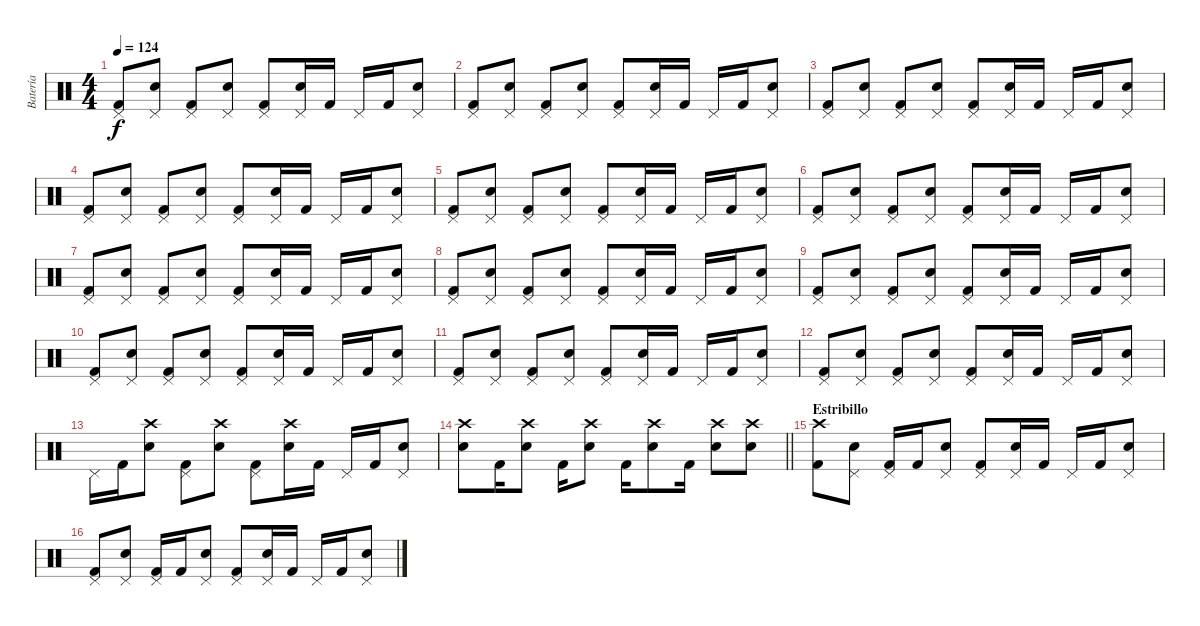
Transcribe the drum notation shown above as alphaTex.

\track ("Batería" "Batería") {instrument percussion}
\staff {score}
\articulation defaults
\ts (4 4)
\tempo 124
\clef neutral
\ks c
("Pedal Hi-Hat (hit)" "Kick (hit) 2").8{dy f} ("Pedal Hi-Hat (hit)" "Snare (hit) 2").8 ("Pedal Hi-Hat (hit)" "Kick (hit) 2").8 ("Pedal Hi-Hat (hit)" "Snare (hit) 2").8 ("Pedal Hi-Hat (hit)" "Kick (hit) 2").8 ("Pedal Hi-Hat (hit)" "Snare (hit) 2").16 "Kick (hit) 2".16 "Pedal Hi-Hat (hit)".16 "Kick (hit) 2".16 ("Pedal Hi-Hat (hit)" "Snare (hit) 2").8 |
("Pedal Hi-Hat (hit)" "Kick (hit) 2").8 ("Pedal Hi-Hat (hit)" "Snare (hit) 2").8 ("Pedal Hi-Hat (hit)" "Kick (hit) 2").8 ("Pedal Hi-Hat (hit)" "Snare (hit) 2").8 ("Pedal Hi-Hat (hit)" "Kick (hit) 2").8 ("Pedal Hi-Hat (hit)" "Snare (hit) 2").16 "Kick (hit) 2".16 "Pedal Hi-Hat (hit)".16 "Kick (hit) 2".16 ("Pedal Hi-Hat (hit)" "Snare (hit) 2").8 |
("Pedal Hi-Hat (hit)" "Kick (hit) 2").8 ("Pedal Hi-Hat (hit)" "Snare (hit) 2").8 ("Pedal Hi-Hat (hit)" "Kick (hit) 2").8 ("Pedal Hi-Hat (hit)" "Snare (hit) 2").8 ("Pedal Hi-Hat (hit)" "Kick (hit) 2").8 ("Pedal Hi-Hat (hit)" "Snare (hit) 2").16 "Kick (hit) 2".16 "Pedal Hi-Hat (hit)".16 "Kick (hit) 2".16 ("Pedal Hi-Hat (hit)" "Snare (hit) 2").8 |
("Pedal Hi-Hat (hit)" "Kick (hit) 2").8 ("Pedal Hi-Hat (hit)" "Snare (hit) 2").8 ("Pedal Hi-Hat (hit)" "Kick (hit) 2").8 ("Pedal Hi-Hat (hit)" "Snare (hit) 2").8 ("Pedal Hi-Hat (hit)" "Kick (hit) 2").8 ("Pedal Hi-Hat (hit)" "Snare (hit) 2").16 "Kick (hit) 2".16 "Pedal Hi-Hat (hit)".16 "Kick (hit) 2".16 ("Pedal Hi-Hat (hit)" "Snare (hit) 2").8 |
("Pedal Hi-Hat (hit)" "Kick (hit) 2").8 ("Pedal Hi-Hat (hit)" "Snare (hit) 2").8 ("Pedal Hi-Hat (hit)" "Kick (hit) 2").8 ("Pedal Hi-Hat (hit)" "Snare (hit) 2").8 ("Pedal Hi-Hat (hit)" "Kick (hit) 2").8 ("Pedal Hi-Hat (hit)" "Snare (hit) 2").16 "Kick (hit) 2".16 "Pedal Hi-Hat (hit)".16 "Kick (hit) 2".16 ("Pedal Hi-Hat (hit)" "Snare (hit) 2").8 |
("Pedal Hi-Hat (hit)" "Kick (hit) 2").8 ("Pedal Hi-Hat (hit)" "Snare (hit) 2").8 ("Pedal Hi-Hat (hit)" "Kick (hit) 2").8 ("Pedal Hi-Hat (hit)" "Snare (hit) 2").8 ("Pedal Hi-Hat (hit)" "Kick (hit) 2").8 ("Pedal Hi-Hat (hit)" "Snare (hit) 2").16 "Kick (hit) 2".16 "Pedal Hi-Hat (hit)".16 "Kick (hit) 2".16 ("Pedal Hi-Hat (hit)" "Snare (hit) 2").8 |
("Pedal Hi-Hat (hit)" "Kick (hit) 2").8 ("Pedal Hi-Hat (hit)" "Snare (hit) 2").8 ("Pedal Hi-Hat (hit)" "Kick (hit) 2").8 ("Pedal Hi-Hat (hit)" "Snare (hit) 2").8 ("Pedal Hi-Hat (hit)" "Kick (hit) 2").8 ("Pedal Hi-Hat (hit)" "Snare (hit) 2").16 "Kick (hit) 2".16 "Pedal Hi-Hat (hit)".16 "Kick (hit) 2".16 ("Pedal Hi-Hat (hit)" "Snare (hit) 2").8 |
("Pedal Hi-Hat (hit)" "Kick (hit) 2").8 ("Pedal Hi-Hat (hit)" "Snare (hit) 2").8 ("Pedal Hi-Hat (hit)" "Kick (hit) 2").8 ("Pedal Hi-Hat (hit)" "Snare (hit) 2").8 ("Pedal Hi-Hat (hit)" "Kick (hit) 2").8 ("Pedal Hi-Hat (hit)" "Snare (hit) 2").16 "Kick (hit) 2".16 "Pedal Hi-Hat (hit)".16 "Kick (hit) 2".16 ("Pedal Hi-Hat (hit)" "Snare (hit) 2").8 |
("Pedal Hi-Hat (hit)" "Kick (hit) 2").8 ("Pedal Hi-Hat (hit)" "Snare (hit) 2").8 ("Pedal Hi-Hat (hit)" "Kick (hit) 2").8 ("Pedal Hi-Hat (hit)" "Snare (hit) 2").8 ("Pedal Hi-Hat (hit)" "Kick (hit) 2").8 ("Pedal Hi-Hat (hit)" "Snare (hit) 2").16 "Kick (hit) 2".16 "Pedal Hi-Hat (hit)".16 "Kick (hit) 2".16 ("Pedal Hi-Hat (hit)" "Snare (hit) 2").8 |
("Pedal Hi-Hat (hit)" "Kick (hit) 2").8 ("Pedal Hi-Hat (hit)" "Snare (hit) 2").8 ("Pedal Hi-Hat (hit)" "Kick (hit) 2").8 ("Pedal Hi-Hat (hit)" "Snare (hit) 2").8 ("Pedal Hi-Hat (hit)" "Kick (hit) 2").8 ("Pedal Hi-Hat (hit)" "Snare (hit) 2").16 "Kick (hit) 2".16 "Pedal Hi-Hat (hit)".16 "Kick (hit) 2".16 ("Pedal Hi-Hat (hit)" "Snare (hit) 2").8 |
("Pedal Hi-Hat (hit)" "Kick (hit) 2").8 ("Pedal Hi-Hat (hit)" "Snare (hit) 2").8 ("Pedal Hi-Hat (hit)" "Kick (hit) 2").8 ("Pedal Hi-Hat (hit)" "Snare (hit) 2").8 ("Pedal Hi-Hat (hit)" "Kick (hit) 2").8 ("Pedal Hi-Hat (hit)" "Snare (hit) 2").16 "Kick (hit) 2".16 "Pedal Hi-Hat (hit)".16 "Kick (hit) 2".16 ("Pedal Hi-Hat (hit)" "Snare (hit) 2").8 |
("Pedal Hi-Hat (hit)" "Kick (hit) 2").8 ("Pedal Hi-Hat (hit)" "Snare (hit) 2").8 ("Pedal Hi-Hat (hit)" "Kick (hit) 2").8 ("Pedal Hi-Hat (hit)" "Snare (hit) 2").8 ("Pedal Hi-Hat (hit)" "Kick (hit) 2").8 ("Pedal Hi-Hat (hit)" "Snare (hit) 2").16 "Kick (hit) 2".16 "Pedal Hi-Hat (hit)".16 "Kick (hit) 2".16 ("Pedal Hi-Hat (hit)" "Snare (hit) 2").8 |
"Pedal Hi-Hat (hit)".16 "Kick (hit) 2".16 ("Crash high (hit)" "Snare (hit) 2").8 ("Pedal Hi-Hat (hit)" "Kick (hit) 2").8 ("Crash high (hit)" "Snare (hit) 2").8 ("Pedal Hi-Hat (hit)" "Kick (hit) 2").8 ("Crash high (hit)" "Snare (hit) 2").16 "Kick (hit) 2".16 "Pedal Hi-Hat (hit)".16 "Kick (hit) 2".16 ("Pedal Hi-Hat (hit)" "Snare (hit) 2").8 |
\barLineRight lightlight
("Crash high (hit)" "Snare (hit) 2").8 "Kick (hit) 2".16 ("Crash high (hit)" "Snare (hit) 2").8 "Kick (hit) 2".16 ("Crash high (hit)" "Snare (hit) 2").8 "Kick (hit) 2".16 ("Crash high (hit)" "Snare (hit) 2").8 "Kick (hit) 2".16 ("Crash high (hit)" "Snare (hit) 2").8 ("Crash high (hit)" "Snare (hit) 2").8 |
\section ("" "Estribillo")
("Crash high (hit)" "Kick (hit) 2").8 ("Pedal Hi-Hat (hit)" "Snare (hit) 2").8 ("Pedal Hi-Hat (hit)" "Kick (hit) 2").16 "Kick (hit) 2".16 ("Pedal Hi-Hat (hit)" "Snare (hit) 2").8 ("Pedal Hi-Hat (hit)" "Kick (hit) 2").8 ("Pedal Hi-Hat (hit)" "Snare (hit) 2").16 "Kick (hit) 2".16 "Pedal Hi-Hat (hit)".16 "Kick (hit) 2".16 ("Pedal Hi-Hat (hit)" "Snare (hit) 2").8 |
("Pedal Hi-Hat (hit)" "Kick (hit) 2").8 ("Pedal Hi-Hat (hit)" "Snare (hit) 2").8 ("Pedal Hi-Hat (hit)" "Kick (hit) 2").16 "Kick (hit) 2".16 ("Pedal Hi-Hat (hit)" "Snare (hit) 2").8 ("Pedal Hi-Hat (hit)" "Kick (hit) 2").8 ("Pedal Hi-Hat (hit)" "Snare (hit) 2").16 "Kick (hit) 2".16 "Pedal Hi-Hat (hit)".16 "Kick (hit) 2".16 ("Pedal Hi-Hat (hit)" "Snare (hit) 2").8
